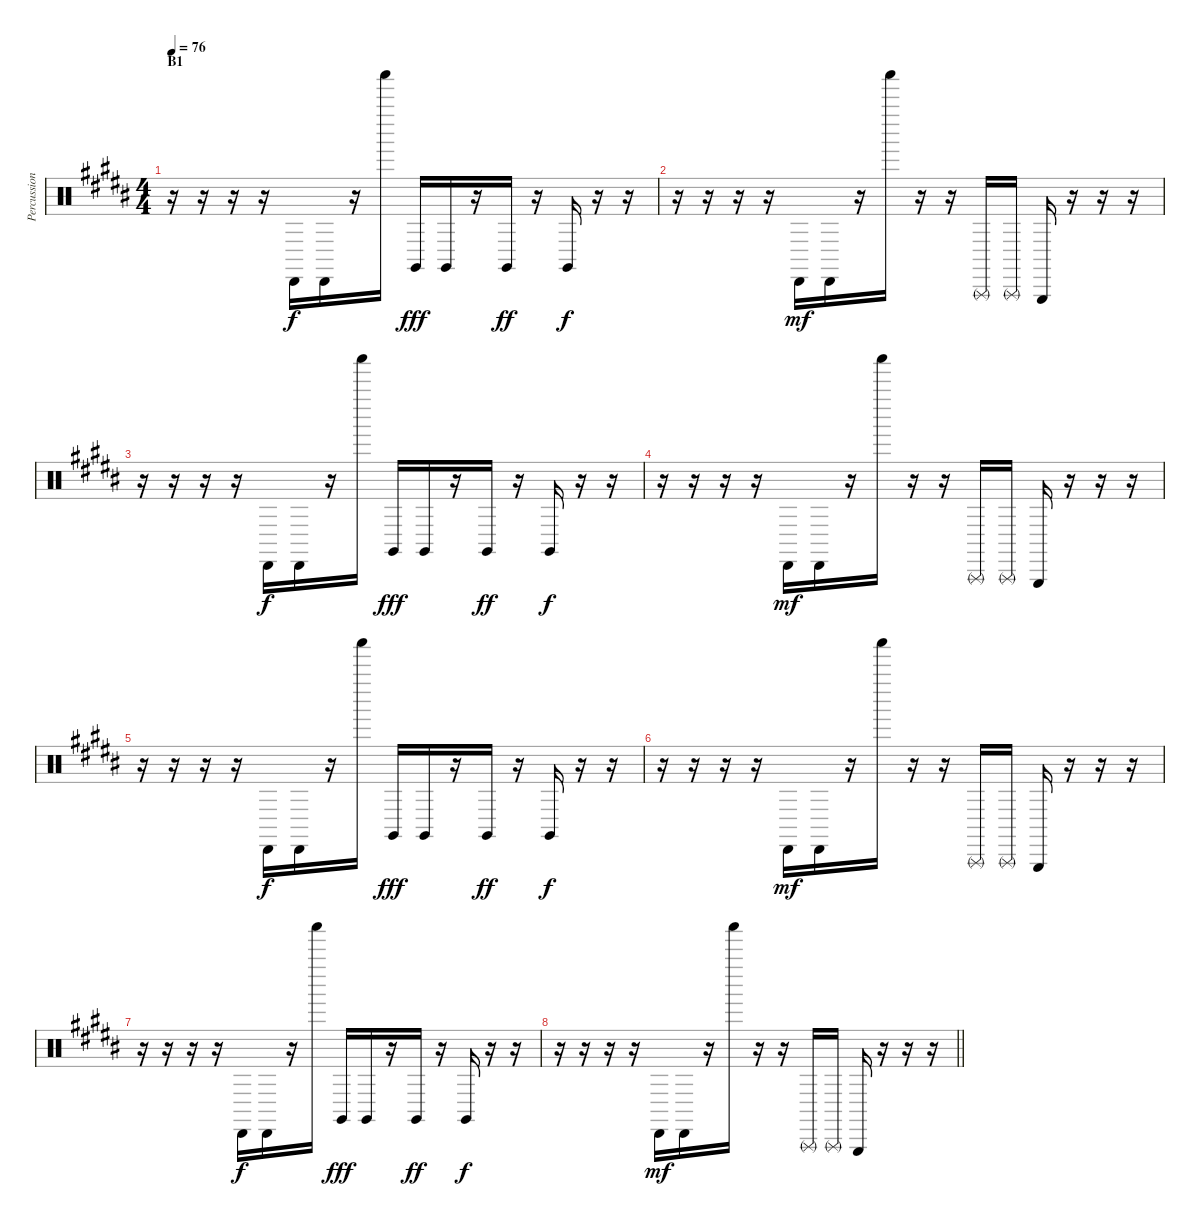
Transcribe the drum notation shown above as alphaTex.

\track ("Percussion" "Percussion") {instrument percussion}
\staff {score}
\articulation defaults
\ts (4 4)
\section ("" "B1")
\tempo 76
\clef neutral
\ks b
r.16{dy mf} r.16 r.16 r.16 "Cabasa (hit)".16{dy f} "Cabasa (hit)".16 r.16 "Shaker (hit)".16 "Claves (hit)".16{dy fff} "Claves (hit)".16 r.16 "Claves (hit)".16{dy ff} r.16 "Claves (hit)".16{dy f} r.16 r.16 |
r.16 r.16 r.16 r.16 "Cabasa (hit)".16{dy mf} "Cabasa (hit)".16 r.16 "Shaker (hit)".16 r.16 r.16 "Triangle (rnute)".16 "Triangle (rnute)".16 "Triangle (hit)".16 r.16 r.16 r.16 |
r.16 r.16 r.16 r.16 "Cabasa (hit)".16{dy f} "Cabasa (hit)".16 r.16 "Shaker (hit)".16 "Claves (hit)".16{dy fff} "Claves (hit)".16 r.16 "Claves (hit)".16{dy ff} r.16 "Claves (hit)".16{dy f} r.16 r.16 |
r.16 r.16 r.16 r.16 "Cabasa (hit)".16{dy mf} "Cabasa (hit)".16 r.16 "Shaker (hit)".16 r.16 r.16 "Triangle (rnute)".16 "Triangle (rnute)".16 "Triangle (hit)".16 r.16 r.16 r.16 |
r.16 r.16 r.16 r.16 "Cabasa (hit)".16{dy f} "Cabasa (hit)".16 r.16 "Shaker (hit)".16 "Claves (hit)".16{dy fff} "Claves (hit)".16 r.16 "Claves (hit)".16{dy ff} r.16 "Claves (hit)".16{dy f} r.16 r.16 |
r.16 r.16 r.16 r.16 "Cabasa (hit)".16{dy mf} "Cabasa (hit)".16 r.16 "Shaker (hit)".16 r.16 r.16 "Triangle (rnute)".16 "Triangle (rnute)".16 "Triangle (hit)".16 r.16 r.16 r.16 |
r.16 r.16 r.16 r.16 "Cabasa (hit)".16{dy f} "Cabasa (hit)".16 r.16 "Shaker (hit)".16 "Claves (hit)".16{dy fff} "Claves (hit)".16 r.16 "Claves (hit)".16{dy ff} r.16 "Claves (hit)".16{dy f} r.16 r.16 |
\barLineRight lightlight
r.16 r.16 r.16 r.16 "Cabasa (hit)".16{dy mf} "Cabasa (hit)".16 r.16 "Shaker (hit)".16 r.16 r.16 "Triangle (rnute)".16 "Triangle (rnute)".16 "Triangle (hit)".16 r.16 r.16 r.16
